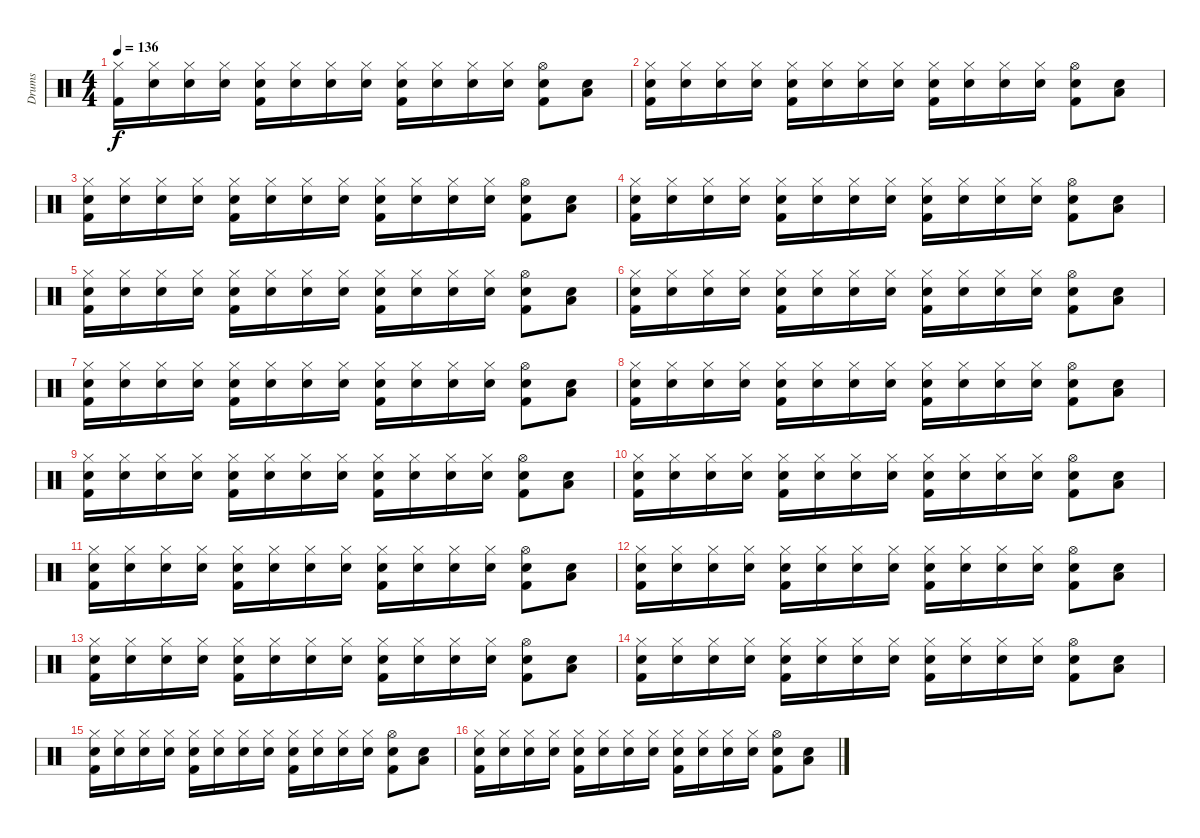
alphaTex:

\track ("Drums" "Drums") {instrument percussion}
\staff {score}
\articulation defaults
\ts (4 4)
\tempo 136
\clef neutral
\ks c
("Kick (hit) 2" "Hi-Hat (closed)").16{dy f} ("Snare (hit)" "Hi-Hat (closed)").16 ("Snare (hit)" "Hi-Hat (closed)").16 ("Snare (hit)" "Hi-Hat (closed)").16 ("Snare (hit)" "Kick (hit) 2" "Hi-Hat (closed)").16 ("Snare (hit)" "Hi-Hat (closed)").16 ("Snare (hit)" "Hi-Hat (closed)").16 ("Snare (hit)" "Hi-Hat (closed)").16 ("Snare (hit)" "Kick (hit) 2" "Hi-Hat (closed)").16 ("Snare (hit)" "Hi-Hat (closed)").16 ("Snare (hit)" "Hi-Hat (closed)").16 ("Snare (hit)" "Hi-Hat (closed)").16 ("Snare (hit)" "Kick (hit) 2" "Hi-Hat (open)").8 ("Snare (hit)" "Low Tom (hit)").8 |
("Snare (hit)" "Kick (hit) 2" "Hi-Hat (closed)").16 ("Snare (hit)" "Hi-Hat (closed)").16 ("Snare (hit)" "Hi-Hat (closed)").16 ("Snare (hit)" "Hi-Hat (closed)").16 ("Snare (hit)" "Kick (hit) 2" "Hi-Hat (closed)").16 ("Snare (hit)" "Hi-Hat (closed)").16 ("Snare (hit)" "Hi-Hat (closed)").16 ("Snare (hit)" "Hi-Hat (closed)").16 ("Snare (hit)" "Kick (hit) 2" "Hi-Hat (closed)").16 ("Snare (hit)" "Hi-Hat (closed)").16 ("Snare (hit)" "Hi-Hat (closed)").16 ("Snare (hit)" "Hi-Hat (closed)").16 ("Snare (hit)" "Kick (hit) 2" "Hi-Hat (open)").8 ("Snare (hit)" "Low Tom (hit)").8 |
("Snare (hit)" "Kick (hit) 2" "Hi-Hat (closed)").16 ("Snare (hit)" "Hi-Hat (closed)").16 ("Snare (hit)" "Hi-Hat (closed)").16 ("Snare (hit)" "Hi-Hat (closed)").16 ("Snare (hit)" "Kick (hit) 2" "Hi-Hat (closed)").16 ("Snare (hit)" "Hi-Hat (closed)").16 ("Snare (hit)" "Hi-Hat (closed)").16 ("Snare (hit)" "Hi-Hat (closed)").16 ("Snare (hit)" "Kick (hit) 2" "Hi-Hat (closed)").16 ("Snare (hit)" "Hi-Hat (closed)").16 ("Snare (hit)" "Hi-Hat (closed)").16 ("Snare (hit)" "Hi-Hat (closed)").16 ("Snare (hit)" "Kick (hit) 2" "Hi-Hat (open)").8 ("Snare (hit)" "Low Tom (hit)").8 |
("Snare (hit)" "Kick (hit) 2" "Hi-Hat (closed)").16 ("Snare (hit)" "Hi-Hat (closed)").16 ("Snare (hit)" "Hi-Hat (closed)").16 ("Snare (hit)" "Hi-Hat (closed)").16 ("Snare (hit)" "Kick (hit) 2" "Hi-Hat (closed)").16 ("Snare (hit)" "Hi-Hat (closed)").16 ("Snare (hit)" "Hi-Hat (closed)").16 ("Snare (hit)" "Hi-Hat (closed)").16 ("Snare (hit)" "Kick (hit) 2" "Hi-Hat (closed)").16 ("Snare (hit)" "Hi-Hat (closed)").16 ("Snare (hit)" "Hi-Hat (closed)").16 ("Snare (hit)" "Hi-Hat (closed)").16 ("Snare (hit)" "Kick (hit) 2" "Hi-Hat (open)").8 ("Snare (hit)" "Low Tom (hit)").8 |
("Snare (hit)" "Kick (hit) 2" "Hi-Hat (closed)").16 ("Snare (hit)" "Hi-Hat (closed)").16 ("Snare (hit)" "Hi-Hat (closed)").16 ("Snare (hit)" "Hi-Hat (closed)").16 ("Snare (hit)" "Kick (hit) 2" "Hi-Hat (closed)").16 ("Snare (hit)" "Hi-Hat (closed)").16 ("Snare (hit)" "Hi-Hat (closed)").16 ("Snare (hit)" "Hi-Hat (closed)").16 ("Snare (hit)" "Kick (hit) 2" "Hi-Hat (closed)").16 ("Snare (hit)" "Hi-Hat (closed)").16 ("Snare (hit)" "Hi-Hat (closed)").16 ("Snare (hit)" "Hi-Hat (closed)").16 ("Snare (hit)" "Kick (hit) 2" "Hi-Hat (open)").8 ("Snare (hit)" "Low Tom (hit)").8 |
("Snare (hit)" "Kick (hit) 2" "Hi-Hat (closed)").16 ("Snare (hit)" "Hi-Hat (closed)").16 ("Snare (hit)" "Hi-Hat (closed)").16 ("Snare (hit)" "Hi-Hat (closed)").16 ("Snare (hit)" "Kick (hit) 2" "Hi-Hat (closed)").16 ("Snare (hit)" "Hi-Hat (closed)").16 ("Snare (hit)" "Hi-Hat (closed)").16 ("Snare (hit)" "Hi-Hat (closed)").16 ("Snare (hit)" "Kick (hit) 2" "Hi-Hat (closed)").16 ("Snare (hit)" "Hi-Hat (closed)").16 ("Snare (hit)" "Hi-Hat (closed)").16 ("Snare (hit)" "Hi-Hat (closed)").16 ("Snare (hit)" "Kick (hit) 2" "Hi-Hat (open)").8 ("Snare (hit)" "Low Tom (hit)").8 |
("Snare (hit)" "Kick (hit) 2" "Hi-Hat (closed)").16 ("Snare (hit)" "Hi-Hat (closed)").16 ("Snare (hit)" "Hi-Hat (closed)").16 ("Snare (hit)" "Hi-Hat (closed)").16 ("Snare (hit)" "Kick (hit) 2" "Hi-Hat (closed)").16 ("Snare (hit)" "Hi-Hat (closed)").16 ("Snare (hit)" "Hi-Hat (closed)").16 ("Snare (hit)" "Hi-Hat (closed)").16 ("Snare (hit)" "Kick (hit) 2" "Hi-Hat (closed)").16 ("Snare (hit)" "Hi-Hat (closed)").16 ("Snare (hit)" "Hi-Hat (closed)").16 ("Snare (hit)" "Hi-Hat (closed)").16 ("Snare (hit)" "Kick (hit) 2" "Hi-Hat (open)").8 ("Snare (hit)" "Low Tom (hit)").8 |
("Snare (hit)" "Kick (hit) 2" "Hi-Hat (closed)").16 ("Snare (hit)" "Hi-Hat (closed)").16 ("Snare (hit)" "Hi-Hat (closed)").16 ("Snare (hit)" "Hi-Hat (closed)").16 ("Snare (hit)" "Kick (hit) 2" "Hi-Hat (closed)").16 ("Snare (hit)" "Hi-Hat (closed)").16 ("Snare (hit)" "Hi-Hat (closed)").16 ("Snare (hit)" "Hi-Hat (closed)").16 ("Snare (hit)" "Kick (hit) 2" "Hi-Hat (closed)").16 ("Snare (hit)" "Hi-Hat (closed)").16 ("Snare (hit)" "Hi-Hat (closed)").16 ("Snare (hit)" "Hi-Hat (closed)").16 ("Snare (hit)" "Kick (hit) 2" "Hi-Hat (open)").8 ("Snare (hit)" "Low Tom (hit)").8 |
("Snare (hit)" "Kick (hit) 2" "Hi-Hat (closed)").16 ("Snare (hit)" "Hi-Hat (closed)").16 ("Snare (hit)" "Hi-Hat (closed)").16 ("Snare (hit)" "Hi-Hat (closed)").16 ("Snare (hit)" "Kick (hit) 2" "Hi-Hat (closed)").16 ("Snare (hit)" "Hi-Hat (closed)").16 ("Snare (hit)" "Hi-Hat (closed)").16 ("Snare (hit)" "Hi-Hat (closed)").16 ("Snare (hit)" "Kick (hit) 2" "Hi-Hat (closed)").16 ("Snare (hit)" "Hi-Hat (closed)").16 ("Snare (hit)" "Hi-Hat (closed)").16 ("Snare (hit)" "Hi-Hat (closed)").16 ("Snare (hit)" "Kick (hit) 2" "Hi-Hat (open)").8 ("Snare (hit)" "Low Tom (hit)").8 |
("Snare (hit)" "Kick (hit) 2" "Hi-Hat (closed)").16 ("Snare (hit)" "Hi-Hat (closed)").16 ("Snare (hit)" "Hi-Hat (closed)").16 ("Snare (hit)" "Hi-Hat (closed)").16 ("Snare (hit)" "Kick (hit) 2" "Hi-Hat (closed)").16 ("Snare (hit)" "Hi-Hat (closed)").16 ("Snare (hit)" "Hi-Hat (closed)").16 ("Snare (hit)" "Hi-Hat (closed)").16 ("Snare (hit)" "Kick (hit) 2" "Hi-Hat (closed)").16 ("Snare (hit)" "Hi-Hat (closed)").16 ("Snare (hit)" "Hi-Hat (closed)").16 ("Snare (hit)" "Hi-Hat (closed)").16 ("Snare (hit)" "Kick (hit) 2" "Hi-Hat (open)").8 ("Snare (hit)" "Low Tom (hit)").8 |
("Snare (hit)" "Kick (hit) 2" "Hi-Hat (closed)").16 ("Snare (hit)" "Hi-Hat (closed)").16 ("Snare (hit)" "Hi-Hat (closed)").16 ("Snare (hit)" "Hi-Hat (closed)").16 ("Snare (hit)" "Kick (hit) 2" "Hi-Hat (closed)").16 ("Snare (hit)" "Hi-Hat (closed)").16 ("Snare (hit)" "Hi-Hat (closed)").16 ("Snare (hit)" "Hi-Hat (closed)").16 ("Snare (hit)" "Kick (hit) 2" "Hi-Hat (closed)").16 ("Snare (hit)" "Hi-Hat (closed)").16 ("Snare (hit)" "Hi-Hat (closed)").16 ("Snare (hit)" "Hi-Hat (closed)").16 ("Snare (hit)" "Kick (hit) 2" "Hi-Hat (open)").8 ("Snare (hit)" "Low Tom (hit)").8 |
("Snare (hit)" "Kick (hit) 2" "Hi-Hat (closed)").16 ("Snare (hit)" "Hi-Hat (closed)").16 ("Snare (hit)" "Hi-Hat (closed)").16 ("Snare (hit)" "Hi-Hat (closed)").16 ("Snare (hit)" "Kick (hit) 2" "Hi-Hat (closed)").16 ("Snare (hit)" "Hi-Hat (closed)").16 ("Snare (hit)" "Hi-Hat (closed)").16 ("Snare (hit)" "Hi-Hat (closed)").16 ("Snare (hit)" "Kick (hit) 2" "Hi-Hat (closed)").16 ("Snare (hit)" "Hi-Hat (closed)").16 ("Snare (hit)" "Hi-Hat (closed)").16 ("Snare (hit)" "Hi-Hat (closed)").16 ("Snare (hit)" "Kick (hit) 2" "Hi-Hat (open)").8 ("Snare (hit)" "Low Tom (hit)").8 |
("Snare (hit)" "Kick (hit) 2" "Hi-Hat (closed)").16 ("Snare (hit)" "Hi-Hat (closed)").16 ("Snare (hit)" "Hi-Hat (closed)").16 ("Snare (hit)" "Hi-Hat (closed)").16 ("Snare (hit)" "Kick (hit) 2" "Hi-Hat (closed)").16 ("Snare (hit)" "Hi-Hat (closed)").16 ("Snare (hit)" "Hi-Hat (closed)").16 ("Snare (hit)" "Hi-Hat (closed)").16 ("Snare (hit)" "Kick (hit) 2" "Hi-Hat (closed)").16 ("Snare (hit)" "Hi-Hat (closed)").16 ("Snare (hit)" "Hi-Hat (closed)").16 ("Snare (hit)" "Hi-Hat (closed)").16 ("Snare (hit)" "Kick (hit) 2" "Hi-Hat (open)").8 ("Snare (hit)" "Low Tom (hit)").8 |
("Snare (hit)" "Kick (hit) 2" "Hi-Hat (closed)").16 ("Snare (hit)" "Hi-Hat (closed)").16 ("Snare (hit)" "Hi-Hat (closed)").16 ("Snare (hit)" "Hi-Hat (closed)").16 ("Snare (hit)" "Kick (hit) 2" "Hi-Hat (closed)").16 ("Snare (hit)" "Hi-Hat (closed)").16 ("Snare (hit)" "Hi-Hat (closed)").16 ("Snare (hit)" "Hi-Hat (closed)").16 ("Snare (hit)" "Kick (hit) 2" "Hi-Hat (closed)").16 ("Snare (hit)" "Hi-Hat (closed)").16 ("Snare (hit)" "Hi-Hat (closed)").16 ("Snare (hit)" "Hi-Hat (closed)").16 ("Snare (hit)" "Kick (hit) 2" "Hi-Hat (open)").8 ("Snare (hit)" "Low Tom (hit)").8 |
("Snare (hit)" "Kick (hit) 2" "Hi-Hat (closed)").16 ("Snare (hit)" "Hi-Hat (closed)").16 ("Snare (hit)" "Hi-Hat (closed)").16 ("Snare (hit)" "Hi-Hat (closed)").16 ("Snare (hit)" "Kick (hit) 2" "Hi-Hat (closed)").16 ("Snare (hit)" "Hi-Hat (closed)").16 ("Snare (hit)" "Hi-Hat (closed)").16 ("Snare (hit)" "Hi-Hat (closed)").16 ("Snare (hit)" "Kick (hit) 2" "Hi-Hat (closed)").16 ("Snare (hit)" "Hi-Hat (closed)").16 ("Snare (hit)" "Hi-Hat (closed)").16 ("Snare (hit)" "Hi-Hat (closed)").16 ("Snare (hit)" "Kick (hit) 2" "Hi-Hat (open)").8 ("Snare (hit)" "Low Tom (hit)").8 |
("Snare (hit)" "Kick (hit) 2" "Hi-Hat (closed)").16 ("Snare (hit)" "Hi-Hat (closed)").16 ("Snare (hit)" "Hi-Hat (closed)").16 ("Snare (hit)" "Hi-Hat (closed)").16 ("Snare (hit)" "Kick (hit) 2" "Hi-Hat (closed)").16 ("Snare (hit)" "Hi-Hat (closed)").16 ("Snare (hit)" "Hi-Hat (closed)").16 ("Snare (hit)" "Hi-Hat (closed)").16 ("Snare (hit)" "Kick (hit) 2" "Hi-Hat (closed)").16 ("Snare (hit)" "Hi-Hat (closed)").16 ("Snare (hit)" "Hi-Hat (closed)").16 ("Snare (hit)" "Hi-Hat (closed)").16 ("Snare (hit)" "Kick (hit) 2" "Hi-Hat (open)").8 ("Snare (hit)" "Low Tom (hit)").8
